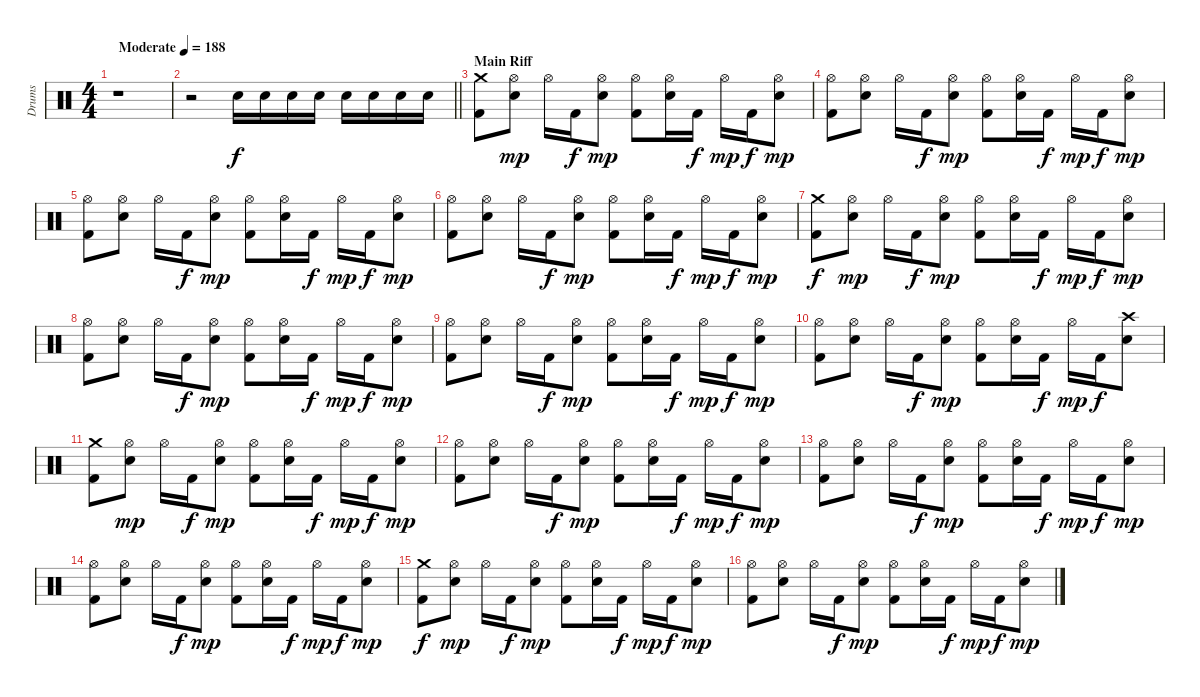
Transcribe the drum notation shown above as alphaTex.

\track ("Drums" "Drums") {instrument percussion}
\staff {score}
\articulation defaults
\ts (4 4)
\tempo (188 "Moderate")
\clef neutral
\ks c
r.1{dy f} |
\barLineRight lightlight
r.2 "Snare (hit) 2".16 "Snare (hit) 2".16 "Snare (hit) 2".16 "Snare (hit) 2".16 "Snare (hit) 2".16 "Snare (hit) 2".16 "Snare (hit) 2".16 "Snare (hit) 2".16 |
\section ("" "Main Riff")
("Crash medium (hit)" "Kick (hit) 2").8 ("Hi-Hat (open)" "Snare (hit) 2").8{dy mp} "Hi-Hat (open)".16 "Kick (hit) 2".16{dy f} ("Hi-Hat (open)" "Snare (hit) 2").8{dy mp} ("Hi-Hat (open)" "Kick (hit) 2").8 ("Hi-Hat (open)" "Snare (hit) 2").16 "Kick (hit) 2".16{dy f} "Hi-Hat (open)".16{dy mp} "Kick (hit) 2".16{dy f} ("Hi-Hat (open)" "Snare (hit) 2").8{dy mp} |
("Hi-Hat (open)" "Kick (hit) 2").8 ("Hi-Hat (open)" "Snare (hit) 2").8 "Hi-Hat (open)".16 "Kick (hit) 2".16{dy f} ("Hi-Hat (open)" "Snare (hit) 2").8{dy mp} ("Hi-Hat (open)" "Kick (hit) 2").8 ("Hi-Hat (open)" "Snare (hit) 2").16 "Kick (hit) 2".16{dy f} "Hi-Hat (open)".16{dy mp} "Kick (hit) 2".16{dy f} ("Hi-Hat (open)" "Snare (hit) 2").8{dy mp} |
("Hi-Hat (open)" "Kick (hit) 2").8 ("Hi-Hat (open)" "Snare (hit) 2").8 "Hi-Hat (open)".16 "Kick (hit) 2".16{dy f} ("Hi-Hat (open)" "Snare (hit) 2").8{dy mp} ("Hi-Hat (open)" "Kick (hit) 2").8 ("Hi-Hat (open)" "Snare (hit) 2").16 "Kick (hit) 2".16{dy f} "Hi-Hat (open)".16{dy mp} "Kick (hit) 2".16{dy f} ("Hi-Hat (open)" "Snare (hit) 2").8{dy mp} |
("Hi-Hat (open)" "Kick (hit) 2").8 ("Hi-Hat (open)" "Snare (hit) 2").8 "Hi-Hat (open)".16 "Kick (hit) 2".16{dy f} ("Hi-Hat (open)" "Snare (hit) 2").8{dy mp} ("Hi-Hat (open)" "Kick (hit) 2").8 ("Hi-Hat (open)" "Snare (hit) 2").16 "Kick (hit) 2".16{dy f} "Hi-Hat (open)".16{dy mp} "Kick (hit) 2".16{dy f} ("Hi-Hat (open)" "Snare (hit) 2").8{dy mp} |
("Crash medium (hit)" "Kick (hit) 2").8{dy f} ("Hi-Hat (open)" "Snare (hit) 2").8{dy mp} "Hi-Hat (open)".16 "Kick (hit) 2".16{dy f} ("Hi-Hat (open)" "Snare (hit) 2").8{dy mp} ("Hi-Hat (open)" "Kick (hit) 2").8 ("Hi-Hat (open)" "Snare (hit) 2").16 "Kick (hit) 2".16{dy f} "Hi-Hat (open)".16{dy mp} "Kick (hit) 2".16{dy f} ("Hi-Hat (open)" "Snare (hit) 2").8{dy mp} |
("Hi-Hat (open)" "Kick (hit) 2").8 ("Hi-Hat (open)" "Snare (hit) 2").8 "Hi-Hat (open)".16 "Kick (hit) 2".16{dy f} ("Hi-Hat (open)" "Snare (hit) 2").8{dy mp} ("Hi-Hat (open)" "Kick (hit) 2").8 ("Hi-Hat (open)" "Snare (hit) 2").16 "Kick (hit) 2".16{dy f} "Hi-Hat (open)".16{dy mp} "Kick (hit) 2".16{dy f} ("Hi-Hat (open)" "Snare (hit) 2").8{dy mp} |
("Hi-Hat (open)" "Kick (hit) 2").8 ("Hi-Hat (open)" "Snare (hit) 2").8 "Hi-Hat (open)".16 "Kick (hit) 2".16{dy f} ("Hi-Hat (open)" "Snare (hit) 2").8{dy mp} ("Hi-Hat (open)" "Kick (hit) 2").8 ("Hi-Hat (open)" "Snare (hit) 2").16 "Kick (hit) 2".16{dy f} "Hi-Hat (open)".16{dy mp} "Kick (hit) 2".16{dy f} ("Hi-Hat (open)" "Snare (hit) 2").8{dy mp} |
("Hi-Hat (open)" "Kick (hit) 2").8 ("Hi-Hat (open)" "Snare (hit) 2").8 "Hi-Hat (open)".16 "Kick (hit) 2".16{dy f} ("Hi-Hat (open)" "Snare (hit) 2").8{dy mp} ("Hi-Hat (open)" "Kick (hit) 2").8 ("Hi-Hat (open)" "Snare (hit) 2").16 "Kick (hit) 2".16{dy f} "Hi-Hat (open)".16{dy mp} "Kick (hit) 2".16{dy f} ("Crash high (hit)" "Snare (hit) 2").8 |
("Crash medium (hit)" "Kick (hit) 2").8 ("Hi-Hat (open)" "Snare (hit) 2").8{dy mp} "Hi-Hat (open)".16 "Kick (hit) 2".16{dy f} ("Hi-Hat (open)" "Snare (hit) 2").8{dy mp} ("Hi-Hat (open)" "Kick (hit) 2").8 ("Hi-Hat (open)" "Snare (hit) 2").16 "Kick (hit) 2".16{dy f} "Hi-Hat (open)".16{dy mp} "Kick (hit) 2".16{dy f} ("Hi-Hat (open)" "Snare (hit) 2").8{dy mp} |
("Hi-Hat (open)" "Kick (hit) 2").8 ("Hi-Hat (open)" "Snare (hit) 2").8 "Hi-Hat (open)".16 "Kick (hit) 2".16{dy f} ("Hi-Hat (open)" "Snare (hit) 2").8{dy mp} ("Hi-Hat (open)" "Kick (hit) 2").8 ("Hi-Hat (open)" "Snare (hit) 2").16 "Kick (hit) 2".16{dy f} "Hi-Hat (open)".16{dy mp} "Kick (hit) 2".16{dy f} ("Hi-Hat (open)" "Snare (hit) 2").8{dy mp} |
("Hi-Hat (open)" "Kick (hit) 2").8 ("Hi-Hat (open)" "Snare (hit) 2").8 "Hi-Hat (open)".16 "Kick (hit) 2".16{dy f} ("Hi-Hat (open)" "Snare (hit) 2").8{dy mp} ("Hi-Hat (open)" "Kick (hit) 2").8 ("Hi-Hat (open)" "Snare (hit) 2").16 "Kick (hit) 2".16{dy f} "Hi-Hat (open)".16{dy mp} "Kick (hit) 2".16{dy f} ("Hi-Hat (open)" "Snare (hit) 2").8{dy mp} |
("Hi-Hat (open)" "Kick (hit) 2").8 ("Hi-Hat (open)" "Snare (hit) 2").8 "Hi-Hat (open)".16 "Kick (hit) 2".16{dy f} ("Hi-Hat (open)" "Snare (hit) 2").8{dy mp} ("Hi-Hat (open)" "Kick (hit) 2").8 ("Hi-Hat (open)" "Snare (hit) 2").16 "Kick (hit) 2".16{dy f} "Hi-Hat (open)".16{dy mp} "Kick (hit) 2".16{dy f} ("Hi-Hat (open)" "Snare (hit) 2").8{dy mp} |
("Crash medium (hit)" "Kick (hit) 2").8{dy f} ("Hi-Hat (open)" "Snare (hit) 2").8{dy mp} "Hi-Hat (open)".16 "Kick (hit) 2".16{dy f} ("Hi-Hat (open)" "Snare (hit) 2").8{dy mp} ("Hi-Hat (open)" "Kick (hit) 2").8 ("Hi-Hat (open)" "Snare (hit) 2").16 "Kick (hit) 2".16{dy f} "Hi-Hat (open)".16{dy mp} "Kick (hit) 2".16{dy f} ("Hi-Hat (open)" "Snare (hit) 2").8{dy mp} |
("Hi-Hat (open)" "Kick (hit) 2").8 ("Hi-Hat (open)" "Snare (hit) 2").8 "Hi-Hat (open)".16 "Kick (hit) 2".16{dy f} ("Hi-Hat (open)" "Snare (hit) 2").8{dy mp} ("Hi-Hat (open)" "Kick (hit) 2").8 ("Hi-Hat (open)" "Snare (hit) 2").16 "Kick (hit) 2".16{dy f} "Hi-Hat (open)".16{dy mp} "Kick (hit) 2".16{dy f} ("Hi-Hat (open)" "Snare (hit) 2").8{dy mp}
